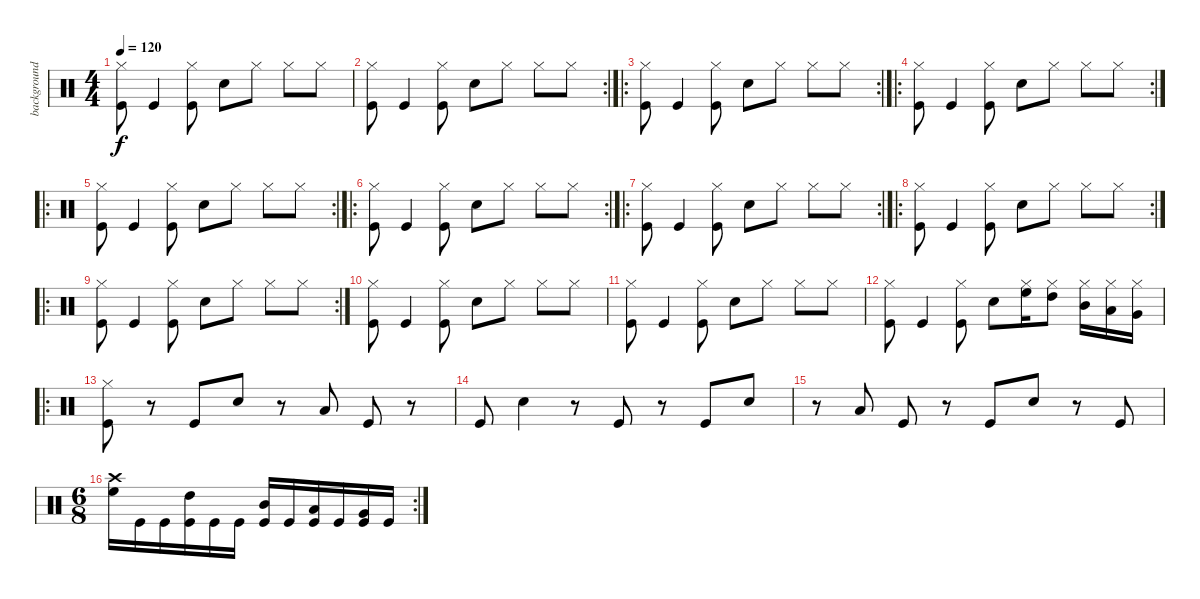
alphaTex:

\track ("background drum" "background") {instrument percussion}
\staff {score}
\articulation defaults
\ts (4 4)
\tempo 120
\clef neutral
\ks c
("Kick (hit)" "Hi-Hat (closed)").8{dy f} "Kick (hit)".4 ("Kick (hit)" "Hi-Hat (closed)").8 "Snare (hit) 2".8 "Hi-Hat (closed)".8 "Hi-Hat (closed)".8 "Hi-Hat (closed)".8 |
\rc 2
("Kick (hit)" "Hi-Hat (closed)").8 "Kick (hit)".4 ("Kick (hit)" "Hi-Hat (closed)").8 "Snare (hit) 2".8 "Hi-Hat (closed)".8 "Hi-Hat (closed)".8 "Hi-Hat (closed)".8 |
\ro
\rc 2
("Kick (hit)" "Hi-Hat (closed)").8 "Kick (hit)".4 ("Kick (hit)" "Hi-Hat (closed)").8 "Snare (hit) 2".8 "Hi-Hat (closed)".8 "Hi-Hat (closed)".8 "Hi-Hat (closed)".8 |
\ro
\rc 2
("Kick (hit)" "Hi-Hat (closed)").8 "Kick (hit)".4 ("Kick (hit)" "Hi-Hat (closed)").8 "Snare (hit) 2".8 "Hi-Hat (closed)".8 "Hi-Hat (closed)".8 "Hi-Hat (closed)".8 |
\ro
\rc 2
("Kick (hit)" "Hi-Hat (closed)").8 "Kick (hit)".4 ("Kick (hit)" "Hi-Hat (closed)").8 "Snare (hit) 2".8 "Hi-Hat (closed)".8 "Hi-Hat (closed)".8 "Hi-Hat (closed)".8 |
\ro
\rc 2
("Kick (hit)" "Hi-Hat (closed)").8 "Kick (hit)".4 ("Kick (hit)" "Hi-Hat (closed)").8 "Snare (hit) 2".8 "Hi-Hat (closed)".8 "Hi-Hat (closed)".8 "Hi-Hat (closed)".8 |
\ro
\rc 2
("Kick (hit)" "Hi-Hat (closed)").8 "Kick (hit)".4 ("Kick (hit)" "Hi-Hat (closed)").8 "Snare (hit) 2".8 "Hi-Hat (closed)".8 "Hi-Hat (closed)".8 "Hi-Hat (closed)".8 |
\ro
\rc 2
("Kick (hit)" "Hi-Hat (closed)").8 "Kick (hit)".4 ("Kick (hit)" "Hi-Hat (closed)").8 "Snare (hit) 2".8 "Hi-Hat (closed)".8 "Hi-Hat (closed)".8 "Hi-Hat (closed)".8 |
\ro
\rc 2
("Kick (hit)" "Hi-Hat (closed)").8 "Kick (hit)".4 ("Kick (hit)" "Hi-Hat (closed)").8 "Snare (hit) 2".8 "Hi-Hat (closed)".8 "Hi-Hat (closed)".8 "Hi-Hat (closed)".8 |
("Kick (hit)" "Hi-Hat (closed)").8 "Kick (hit)".4 ("Kick (hit)" "Hi-Hat (closed)").8 "Snare (hit) 2".8 "Hi-Hat (closed)".8 "Hi-Hat (closed)".8 "Hi-Hat (closed)".8 |
("Kick (hit)" "Hi-Hat (closed)").8 "Kick (hit)".4 ("Kick (hit)" "Hi-Hat (closed)").8 "Snare (hit) 2".8 "Hi-Hat (closed)".8 "Hi-Hat (closed)".8 "Hi-Hat (closed)".8 |
("Kick (hit)" "Hi-Hat (closed)").8 "Kick (hit)".4 ("Kick (hit)" "Hi-Hat (closed)").8 "Snare (hit) 2".8 ("Hi-Hat (closed)" "High Floor Tom (hit)").16 ("Hi-Hat (closed)" "High Tom (hit)").8 ("Hi-Hat (closed)" "Mid Tom (hit)").16 ("Hi-Hat (closed)" "Low Tom (hit)").16 ("Hi-Hat (closed)" "Very Low Tom (hit)").16 |
\ro
("Kick (hit)" "Hi-Hat (closed)").8 r.8 "Kick (hit)".8 "Snare (hit) 2".8 r.8 "Low Tom (hit)".8 "Kick (hit)".8 r.8 |
"Kick (hit)".8 "Snare (hit) 2".4 r.8 "Kick (hit)".8 r.8 "Kick (hit)".8 "Snare (hit) 2".8 |
r.8 "Low Tom (hit)".8 "Kick (hit)".8 r.8 "Kick (hit)".8 "Snare (hit) 2".8 r.8 "Kick (hit)".8 |
\rc 2
\ts (6 8)
("High Floor Tom (hit)" "Crash high (hit)").16 "Kick (hit)".16 "Kick (hit)".16 ("High Tom (hit)" "Kick (hit)").16 "Kick (hit)".16 "Kick (hit)".16 ("Mid Tom (hit)" "Kick (hit)").16 "Kick (hit)".16 ("Low Tom (hit)" "Kick (hit)").16 "Kick (hit)".16 ("Very Low Tom (hit)" "Kick (hit)").16 "Kick (hit)".16
